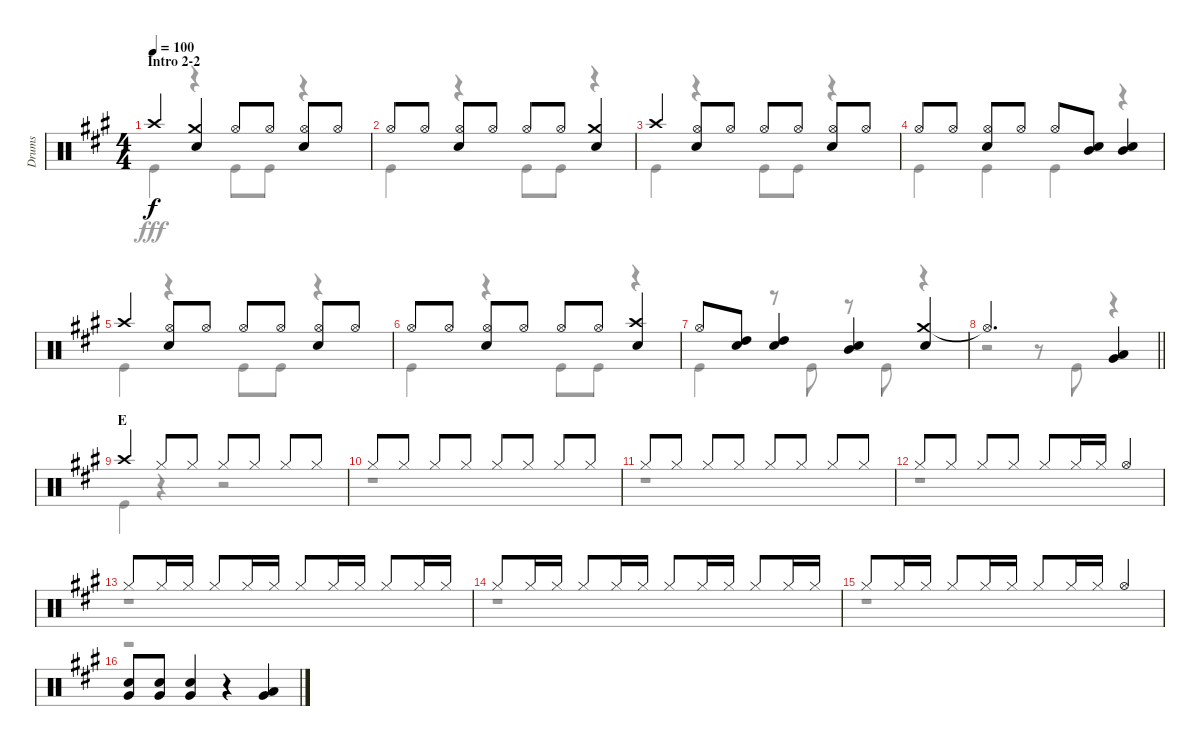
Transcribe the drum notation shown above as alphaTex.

\track ("Drums" "Drums") {instrument percussion}
\staff {score}
\articulation defaults
\voice
\ts (4 4)
\section ("" "Intro 2-2")
\tempo 100
\clef neutral
\ks a "Crash high (hit)".4{dy f}
("Crash medium (hit)" "Snare (hit) 2").4 "Hi-Hat (open)".8 "Hi-Hat (open)".8 ("Hi-Hat (open)" "Snare (hit) 2").8 "Hi-Hat (open)".8 |
"Hi-Hat (open)".8 "Hi-Hat (open)".8 ("Hi-Hat (open)" "Snare (hit) 2").8 "Hi-Hat (open)".8 "Hi-Hat (open)".8 "Hi-Hat (open)".8 ("Crash medium (hit)" "Snare (hit) 2").4 |
"Crash high (hit)".4 ("Hi-Hat (open)" "Snare (hit) 2").8 "Hi-Hat (open)".8 "Hi-Hat (open)".8 "Hi-Hat (open)".8 ("Hi-Hat (open)" "Snare (hit) 2").8 "Hi-Hat (open)".8 |
"Hi-Hat (open)".8 "Hi-Hat (open)".8 ("Hi-Hat (open)" "Snare (hit) 2").8 "Hi-Hat (open)".8 "Hi-Hat (open)".8 ("Mid Tom (hit)" "Snare (hit) 2").8 ("Mid Tom (hit)" "Snare (hit) 2").4 |
"Crash high (hit)".4 ("Hi-Hat (open)" "Snare (hit) 2").8 "Hi-Hat (open)".8 "Hi-Hat (open)".8 "Hi-Hat (open)".8 ("Hi-Hat (open)" "Snare (hit) 2").8 "Hi-Hat (open)".8 |
"Hi-Hat (open)".8 "Hi-Hat (open)".8 ("Hi-Hat (open)" "Snare (hit) 2").8 "Hi-Hat (open)".8 "Hi-Hat (open)".8 "Hi-Hat (open)".8 ("Crash high (hit)" "Snare (hit) 2").4 |
"Hi-Hat (open)".8 ("High Tom (hit)" "Snare (hit) 2").8 ("High Tom (hit)" "Snare (hit) 2").4 ("Mid Tom (hit)" "Snare (hit) 2").4 ("Crash medium (hit)" "Snare (hit) 2").4 |
\barLineRight lightlight "Hi-Hat (open)"{t}.2{d}
("Low Tom (hit)" "Very Low Tom (hit)").4 |
\section ("" "E")
"Crash high (hit)".4 "Hi-Hat (closed)".8 "Hi-Hat (closed)".8 "Hi-Hat (closed)".8 "Hi-Hat (closed)".8 "Hi-Hat (closed)".8 "Hi-Hat (closed)".8 |
"Hi-Hat (closed)".8 "Hi-Hat (closed)".8 "Hi-Hat (closed)".8 "Hi-Hat (closed)".8 "Hi-Hat (closed)".8 "Hi-Hat (closed)".8 "Hi-Hat (closed)".8 "Hi-Hat (closed)".8 |
"Hi-Hat (closed)".8 "Hi-Hat (closed)".8 "Hi-Hat (closed)".8 "Hi-Hat (closed)".8 "Hi-Hat (closed)".8 "Hi-Hat (closed)".8 "Hi-Hat (closed)".8 "Hi-Hat (closed)".8 |
"Hi-Hat (closed)".8 "Hi-Hat (closed)".8 "Hi-Hat (closed)".8 "Hi-Hat (closed)".8 "Hi-Hat (closed)".8 "Hi-Hat (closed)".16 "Hi-Hat (closed)".16 "Hi-Hat (open)".4 |
"Hi-Hat (closed)".8 "Hi-Hat (closed)".16 "Hi-Hat (closed)".16 "Hi-Hat (closed)".8 "Hi-Hat (closed)".16 "Hi-Hat (closed)".16 "Hi-Hat (closed)".8 "Hi-Hat (closed)".16 "Hi-Hat (closed)".16 "Hi-Hat (closed)".8 "Hi-Hat (closed)".16 "Hi-Hat (closed)".16 |
"Hi-Hat (closed)".8 "Hi-Hat (closed)".16 "Hi-Hat (closed)".16 "Hi-Hat (closed)".8 "Hi-Hat (closed)".16 "Hi-Hat (closed)".16 "Hi-Hat (closed)".8 "Hi-Hat (closed)".16 "Hi-Hat (closed)".16 "Hi-Hat (closed)".8 "Hi-Hat (closed)".16 "Hi-Hat (closed)".16 |
"Hi-Hat (closed)".8 "Hi-Hat (closed)".16 "Hi-Hat (closed)".16 "Hi-Hat (closed)".8 "Hi-Hat (closed)".16 "Hi-Hat (closed)".16 "Hi-Hat (closed)".8 "Hi-Hat (closed)".16 "Hi-Hat (closed)".16 "Hi-Hat (open)".4 |
("Snare (hit) 2" "Very Low Tom (hit)").8 ("Snare (hit) 2" "Very Low Tom (hit)").8 ("Snare (hit) 2" "Very Low Tom (hit)").4 r.4 ("Low Tom (hit)" "Very Low Tom (hit)").4
\voice
\clef neutral
\ottava regular
\simile none
\ks a "Kick (hit)".4{dy fff}
r.4 "Kick (hit)".8 "Kick (hit)".8 r.4 |
"Kick (hit)".4 r.4 "Kick (hit)".8 "Kick (hit)".8 r.4 |
"Kick (hit)".4 r.4 "Kick (hit)".8 "Kick (hit)".8 r.4 |
"Kick (hit)".4 "Kick (hit)".4 "Kick (hit)".4 r.4 |
"Kick (hit)".4 r.4 "Kick (hit)".8 "Kick (hit)".8 r.4 |
"Kick (hit)".4 r.4 "Kick (hit)".8 "Kick (hit)".8 r.4 |
"Kick (hit)".4 r.8 "Kick (hit)".8 r.8 "Kick (hit)".8 r.4 |
\barLineRight lightlight
r.2 r.8 "Kick (hit)".8 r.4 |
"Kick (hit)".4 r.4 r.2 |
r.1 |
r.1 |
r.1 |
r.1 |
r.1 |
r.1 |
r.1
